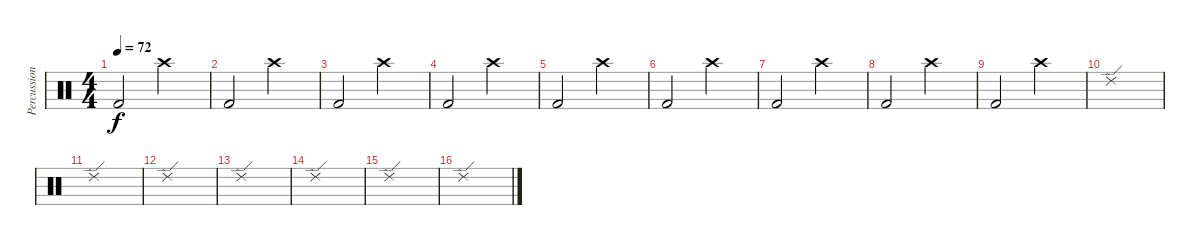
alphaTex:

\track ("Percussion" "Percussion") {instrument percussion}
\staff {score}
\articulation defaults
\ts (4 4)
\tempo 72
\clef neutral
\ks c "Kick (hit) 2".2{dy f} "Crash high (hit)".2
|
"Kick (hit) 2".2 "Crash high (hit)".2 |
"Kick (hit) 2".2 "Crash high (hit)".2 |
"Kick (hit) 2".2 "Crash high (hit)".2 |
"Kick (hit) 2".2 "Crash high (hit)".2 |
"Kick (hit) 2".2 "Crash high (hit)".2 |
"Kick (hit) 2".2 "Crash high (hit)".2 |
"Kick (hit) 2".2 "Crash high (hit)".2 |
"Kick (hit) 2".2 "Crash high (hit)".2 |
"Ride (edge) 2".1 |
"Ride (edge) 2".1 |
"Ride (edge) 2".1 |
"Ride (edge) 2".1 |
"Ride (edge) 2".1 |
"Ride (edge) 2".1 |
"Ride (edge) 2".1
